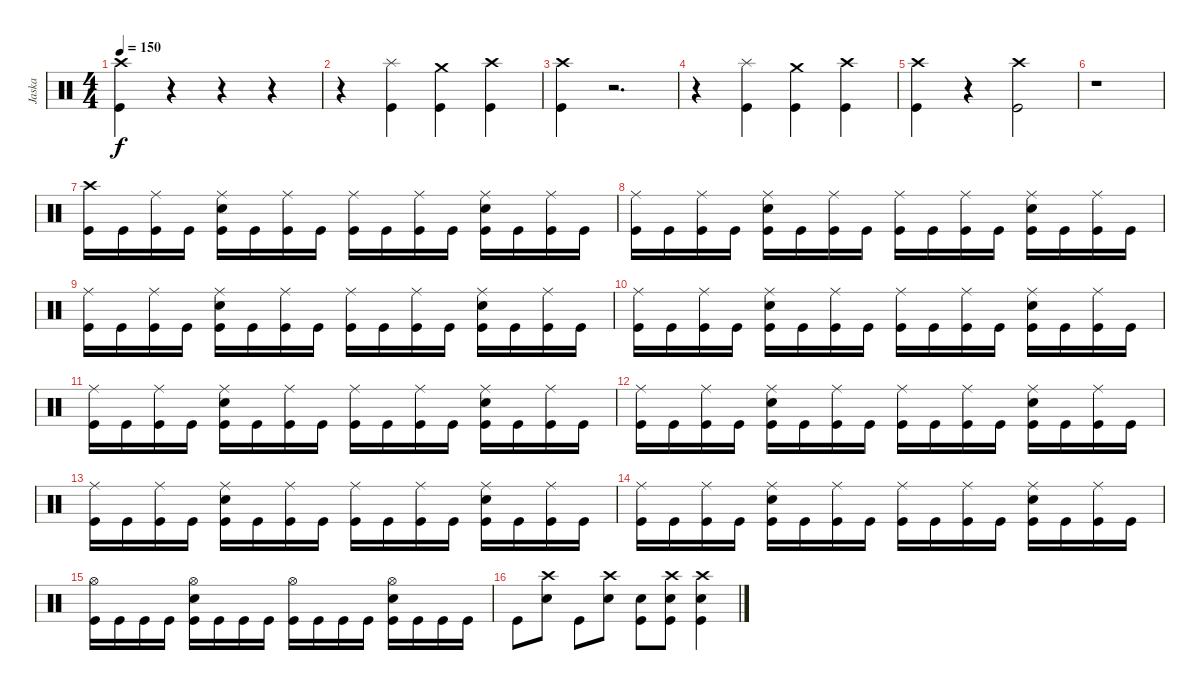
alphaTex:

\track ("Jaska" "Jaska") {instrument percussion}
\staff {score}
\articulation defaults
\ts (4 4)
\tempo 150
\clef neutral
\ks c
("Crash high (hit)" "Kick (hit)").4{dy f} r.4 r.4 r.4 |
r.4 ("Splash (hit)" "Kick (hit)").4 ("Crash medium (hit)" "Kick (hit)").4 ("Crash high (hit)" "Kick (hit)").4 |
("Crash high (hit)" "Kick (hit)").4 r.2{d} |
r.4 ("Splash (hit)" "Kick (hit)").4 ("Crash medium (hit)" "Kick (hit)").4 ("Crash high (hit)" "Kick (hit)").4 |
("Crash high (hit)" "Kick (hit)").4 r.4 ("Crash high (hit)" "Kick (hit)").2 |
r.1 |
("Crash high (hit)" "Kick (hit)").16 "Kick (hit)".16 ("Ride (middle)" "Kick (hit)").16 "Kick (hit)".16 ("Ride (middle)" "Snare (hit) 2" "Kick (hit)").16 "Kick (hit)".16 ("Ride (middle)" "Kick (hit)").16 "Kick (hit)".16 ("Ride (middle)" "Kick (hit)").16 "Kick (hit)".16 ("Ride (middle)" "Kick (hit)").16 "Kick (hit)".16 ("Ride (middle)" "Snare (hit) 2" "Kick (hit)").16 "Kick (hit)".16 ("Ride (middle)" "Kick (hit)").16 "Kick (hit)".16 |
("Ride (middle)" "Kick (hit)").16 "Kick (hit)".16 ("Ride (middle)" "Kick (hit)").16 "Kick (hit)".16 ("Ride (middle)" "Snare (hit) 2" "Kick (hit)").16 "Kick (hit)".16 ("Ride (middle)" "Kick (hit)").16 "Kick (hit)".16 ("Ride (middle)" "Kick (hit)").16 "Kick (hit)".16 ("Ride (middle)" "Kick (hit)").16 "Kick (hit)".16 ("Ride (middle)" "Snare (hit) 2" "Kick (hit)").16 "Kick (hit)".16 ("Ride (middle)" "Kick (hit)").16 "Kick (hit)".16 |
("Ride (middle)" "Kick (hit)").16 "Kick (hit)".16 ("Ride (middle)" "Kick (hit)").16 "Kick (hit)".16 ("Ride (middle)" "Snare (hit) 2" "Kick (hit)").16 "Kick (hit)".16 ("Ride (middle)" "Kick (hit)").16 "Kick (hit)".16 ("Ride (middle)" "Kick (hit)").16 "Kick (hit)".16 ("Ride (middle)" "Kick (hit)").16 "Kick (hit)".16 ("Ride (middle)" "Snare (hit) 2" "Kick (hit)").16 "Kick (hit)".16 ("Ride (middle)" "Kick (hit)").16 "Kick (hit)".16 |
("Ride (middle)" "Kick (hit)").16 "Kick (hit)".16 ("Ride (middle)" "Kick (hit)").16 "Kick (hit)".16 ("Ride (middle)" "Snare (hit) 2" "Kick (hit)").16 "Kick (hit)".16 ("Ride (middle)" "Kick (hit)").16 "Kick (hit)".16 ("Ride (middle)" "Kick (hit)").16 "Kick (hit)".16 ("Ride (middle)" "Kick (hit)").16 "Kick (hit)".16 ("Ride (middle)" "Snare (hit) 2" "Kick (hit)").16 "Kick (hit)".16 ("Ride (middle)" "Kick (hit)").16 "Kick (hit)".16 |
("Ride (middle)" "Kick (hit)").16 "Kick (hit)".16 ("Ride (middle)" "Kick (hit)").16 "Kick (hit)".16 ("Ride (middle)" "Snare (hit) 2" "Kick (hit)").16 "Kick (hit)".16 ("Ride (middle)" "Kick (hit)").16 "Kick (hit)".16 ("Ride (middle)" "Kick (hit)").16 "Kick (hit)".16 ("Ride (middle)" "Kick (hit)").16 "Kick (hit)".16 ("Ride (middle)" "Snare (hit) 2" "Kick (hit)").16 "Kick (hit)".16 ("Ride (middle)" "Kick (hit)").16 "Kick (hit)".16 |
("Ride (middle)" "Kick (hit)").16 "Kick (hit)".16 ("Ride (middle)" "Kick (hit)").16 "Kick (hit)".16 ("Ride (middle)" "Snare (hit) 2" "Kick (hit)").16 "Kick (hit)".16 ("Ride (middle)" "Kick (hit)").16 "Kick (hit)".16 ("Ride (middle)" "Kick (hit)").16 "Kick (hit)".16 ("Ride (middle)" "Kick (hit)").16 "Kick (hit)".16 ("Ride (middle)" "Snare (hit) 2" "Kick (hit)").16 "Kick (hit)".16 ("Ride (middle)" "Kick (hit)").16 "Kick (hit)".16 |
("Ride (middle)" "Kick (hit)").16 "Kick (hit)".16 ("Ride (middle)" "Kick (hit)").16 "Kick (hit)".16 ("Ride (middle)" "Snare (hit) 2" "Kick (hit)").16 "Kick (hit)".16 ("Ride (middle)" "Kick (hit)").16 "Kick (hit)".16 ("Ride (middle)" "Kick (hit)").16 "Kick (hit)".16 ("Ride (middle)" "Kick (hit)").16 "Kick (hit)".16 ("Ride (middle)" "Snare (hit) 2" "Kick (hit)").16 "Kick (hit)".16 ("Ride (middle)" "Kick (hit)").16 "Kick (hit)".16 |
("Ride (middle)" "Kick (hit)").16 "Kick (hit)".16 ("Ride (middle)" "Kick (hit)").16 "Kick (hit)".16 ("Ride (middle)" "Snare (hit) 2" "Kick (hit)").16 "Kick (hit)".16 ("Ride (middle)" "Kick (hit)").16 "Kick (hit)".16 ("Ride (middle)" "Kick (hit)").16 "Kick (hit)".16 ("Ride (middle)" "Kick (hit)").16 "Kick (hit)".16 ("Ride (middle)" "Snare (hit) 2" "Kick (hit)").16 "Kick (hit)".16 ("Ride (middle)" "Kick (hit)").16 "Kick (hit)".16 |
("Hi-Hat (open)" "Kick (hit)").16 "Kick (hit)".16 "Kick (hit)".16 "Kick (hit)".16 ("Hi-Hat (open)" "Snare (hit) 2" "Kick (hit)").16 "Kick (hit)".16 "Kick (hit)".16 "Kick (hit)".16 ("Hi-Hat (open)" "Kick (hit)").16 "Kick (hit)".16 "Kick (hit)".16 "Kick (hit)".16 ("Hi-Hat (open)" "Snare (hit) 2" "Kick (hit)").16 "Kick (hit)".16 "Kick (hit)".16 "Kick (hit)".16 |
"Kick (hit)".8 ("Crash high (hit)" "Snare (hit) 2").8 "Kick (hit)".8 ("Crash high (hit)" "Snare (hit) 2").8 ("Snare (hit)" "Kick (hit)").8 ("Crash high (hit)" "Snare (hit) 2" "Kick (hit)").8 ("Crash high (hit)" "Snare (hit) 2" "Kick (hit)").4
